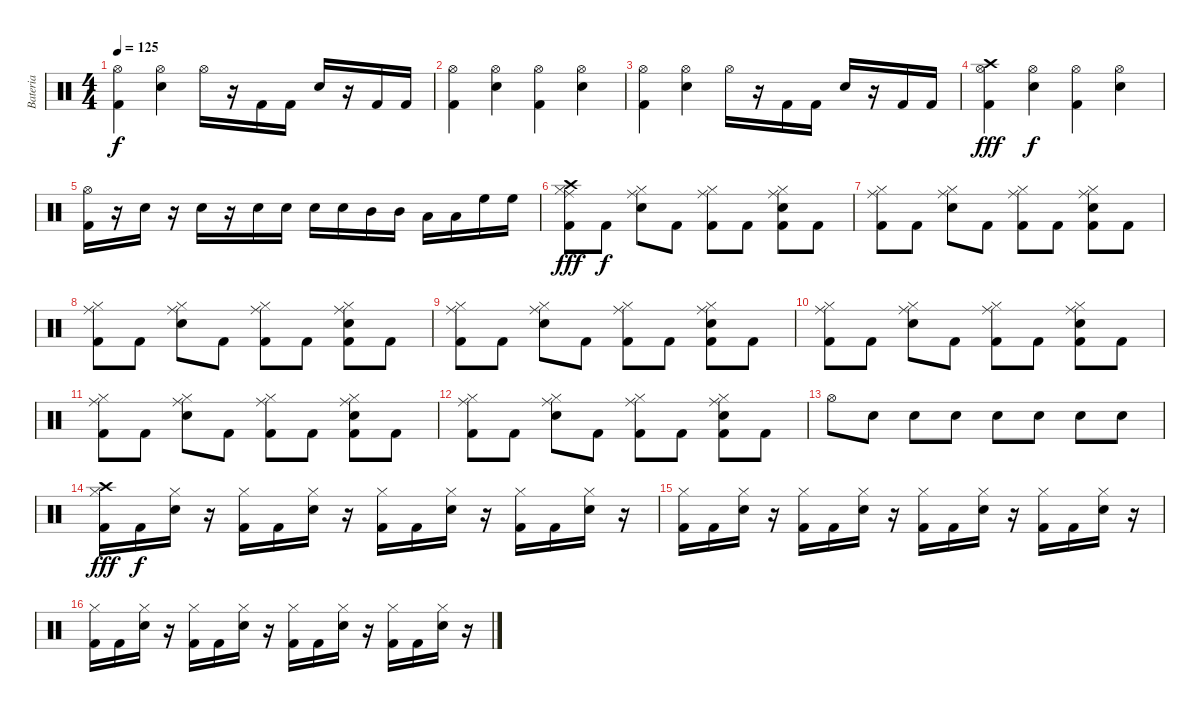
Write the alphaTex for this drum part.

\track ("Bateria" "Bateria") {instrument percussion}
\staff {score}
\articulation defaults
\ts (4 4)
\tempo 125
\clef neutral
\ks c
("Hi-Hat (open)" "Kick (hit) 2").4{dy f} ("Hi-Hat (open)" "Snare (hit) 2").4 "Hi-Hat (open)".16 r.16 "Kick (hit) 2".16 "Kick (hit) 2".16 "Snare (hit) 2".16 r.16 "Kick (hit) 2".16 "Kick (hit) 2".16 |
("Hi-Hat (open)" "Kick (hit) 2").4 ("Hi-Hat (open)" "Snare (hit) 2").4 ("Hi-Hat (open)" "Kick (hit) 2").4 ("Hi-Hat (open)" "Snare (hit) 2").4 |
("Hi-Hat (open)" "Kick (hit) 2").4 ("Hi-Hat (open)" "Snare (hit) 2").4 "Hi-Hat (open)".16 r.16 "Kick (hit) 2".16 "Kick (hit) 2".16 "Snare (hit) 2".16 r.16 "Kick (hit) 2".16 "Kick (hit) 2".16 |
("Hi-Hat (open)" "Kick (hit) 2" "Crash high (hit)").4{dy fff} ("Hi-Hat (open)" "Snare (hit) 2").4{dy f} ("Hi-Hat (open)" "Kick (hit) 2").4 ("Hi-Hat (open)" "Snare (hit) 2").4 |
("Hi-Hat (open)" "Kick (hit) 2").16 r.16 "Snare (hit) 2".16 r.16 "Snare (hit) 2".16 r.16 "Snare (hit) 2".16 "Snare (hit) 2".16 "Snare (hit) 2".16 "Snare (hit) 2".16 "Mid Tom (hit)".16 "Mid Tom (hit)".16 "Low Tom (hit)".16 "Low Tom (hit)".16 "High Floor Tom (hit)".16 "High Floor Tom (hit)".16 |
("Kick (hit) 2" "Hi-Hat (closed)" "Ride (middle)" "Crash high (hit)").8{dy fff} "Kick (hit) 2".8{dy f} ("Snare (hit) 2" "Hi-Hat (closed)" "Ride (middle)").8 "Kick (hit) 2".8 ("Kick (hit) 2" "Hi-Hat (closed)" "Ride (middle)").8 "Kick (hit) 2".8 ("Kick (hit) 2" "Snare (hit) 2" "Hi-Hat (closed)" "Ride (middle)").8 "Kick (hit) 2".8 |
("Kick (hit) 2" "Hi-Hat (closed)" "Ride (middle)").8 "Kick (hit) 2".8 ("Snare (hit) 2" "Hi-Hat (closed)" "Ride (middle)").8 "Kick (hit) 2".8 ("Kick (hit) 2" "Hi-Hat (closed)" "Ride (middle)").8 "Kick (hit) 2".8 ("Kick (hit) 2" "Snare (hit) 2" "Hi-Hat (closed)" "Ride (middle)").8 "Kick (hit) 2".8 |
("Kick (hit) 2" "Hi-Hat (closed)" "Ride (middle)").8 "Kick (hit) 2".8 ("Snare (hit) 2" "Hi-Hat (closed)" "Ride (middle)").8 "Kick (hit) 2".8 ("Kick (hit) 2" "Hi-Hat (closed)" "Ride (middle)").8 "Kick (hit) 2".8 ("Kick (hit) 2" "Snare (hit) 2" "Hi-Hat (closed)" "Ride (middle)").8 "Kick (hit) 2".8 |
("Kick (hit) 2" "Hi-Hat (closed)" "Ride (middle)").8 "Kick (hit) 2".8 ("Snare (hit) 2" "Hi-Hat (closed)" "Ride (middle)").8 "Kick (hit) 2".8 ("Kick (hit) 2" "Hi-Hat (closed)" "Ride (middle)").8 "Kick (hit) 2".8 ("Kick (hit) 2" "Snare (hit) 2" "Hi-Hat (closed)" "Ride (middle)").8 "Kick (hit) 2".8 |
("Kick (hit) 2" "Hi-Hat (closed)" "Ride (middle)").8 "Kick (hit) 2".8 ("Snare (hit) 2" "Hi-Hat (closed)" "Ride (middle)").8 "Kick (hit) 2".8 ("Kick (hit) 2" "Hi-Hat (closed)" "Ride (middle)").8 "Kick (hit) 2".8 ("Kick (hit) 2" "Snare (hit) 2" "Hi-Hat (closed)" "Ride (middle)").8 "Kick (hit) 2".8 |
("Kick (hit) 2" "Hi-Hat (closed)" "Ride (middle)").8 "Kick (hit) 2".8 ("Snare (hit) 2" "Hi-Hat (closed)" "Ride (middle)").8 "Kick (hit) 2".8 ("Kick (hit) 2" "Hi-Hat (closed)" "Ride (middle)").8 "Kick (hit) 2".8 ("Kick (hit) 2" "Snare (hit) 2" "Hi-Hat (closed)" "Ride (middle)").8 "Kick (hit) 2".8 |
("Kick (hit) 2" "Hi-Hat (closed)" "Ride (middle)").8 "Kick (hit) 2".8 ("Snare (hit) 2" "Hi-Hat (closed)" "Ride (middle)").8 "Kick (hit) 2".8 ("Kick (hit) 2" "Hi-Hat (closed)" "Ride (middle)").8 "Kick (hit) 2".8 ("Kick (hit) 2" "Snare (hit) 2" "Hi-Hat (closed)" "Ride (middle)").8 "Kick (hit) 2".8 |
"Hi-Hat (open)".8 "Snare (hit) 2".8 "Snare (hit) 2".8 "Snare (hit) 2".8 "Snare (hit) 2".8 "Snare (hit) 2".8 "Snare (hit) 2".8 "Snare (hit) 2".8 |
("Crash high (hit)" "Kick (hit) 2" "Hi-Hat (closed)").16{dy fff} "Kick (hit) 2".16{dy f} ("Snare (hit) 2" "Hi-Hat (closed)").16 r.16 ("Kick (hit) 2" "Hi-Hat (closed)").16 "Kick (hit) 2".16 ("Snare (hit) 2" "Hi-Hat (closed)").16 r.16 ("Kick (hit) 2" "Hi-Hat (closed)").16 "Kick (hit) 2".16 ("Snare (hit) 2" "Hi-Hat (closed)").16 r.16 ("Kick (hit) 2" "Hi-Hat (closed)").16 "Kick (hit) 2".16 ("Snare (hit) 2" "Hi-Hat (closed)").16 r.16 |
("Kick (hit) 2" "Hi-Hat (closed)").16 "Kick (hit) 2".16 ("Snare (hit) 2" "Hi-Hat (closed)").16 r.16 ("Kick (hit) 2" "Hi-Hat (closed)").16 "Kick (hit) 2".16 ("Snare (hit) 2" "Hi-Hat (closed)").16 r.16 ("Kick (hit) 2" "Hi-Hat (closed)").16 "Kick (hit) 2".16 ("Snare (hit) 2" "Hi-Hat (closed)").16 r.16 ("Kick (hit) 2" "Hi-Hat (closed)").16 "Kick (hit) 2".16 ("Snare (hit) 2" "Hi-Hat (closed)").16 r.16 |
("Kick (hit) 2" "Hi-Hat (closed)").16 "Kick (hit) 2".16 ("Snare (hit) 2" "Hi-Hat (closed)").16 r.16 ("Kick (hit) 2" "Hi-Hat (closed)").16 "Kick (hit) 2".16 ("Snare (hit) 2" "Hi-Hat (closed)").16 r.16 ("Kick (hit) 2" "Hi-Hat (closed)").16 "Kick (hit) 2".16 ("Snare (hit) 2" "Hi-Hat (closed)").16 r.16 ("Kick (hit) 2" "Hi-Hat (closed)").16 "Kick (hit) 2".16 ("Snare (hit) 2" "Hi-Hat (closed)").16 r.16
